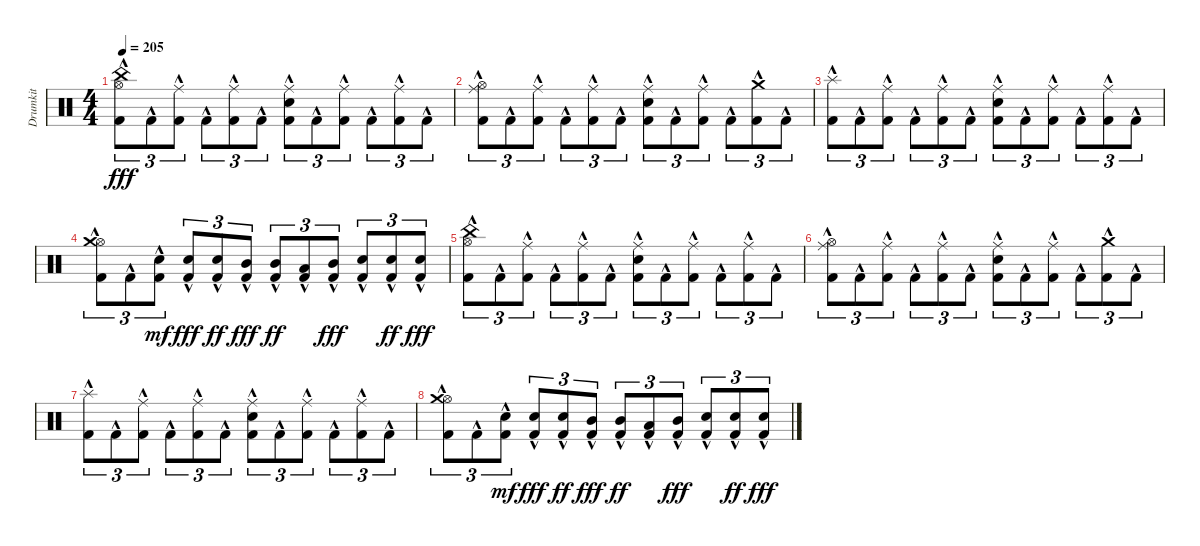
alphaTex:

\track ("Drumkit" "Drumkit") {instrument percussion}
\staff {score}
\articulation defaults
\ts (4 4)
\tempo 205
\clef neutral
\ks c
("Kick (hit) 2"{hac} "Hi-Hat (open)"{hac} "China (hit)"{hac}).8{tu (3 2) dy fff} "Kick (hit) 2"{hac}.8{tu (3 2)} ("Kick (hit) 2"{hac} "Ride (middle)"{hac}).8{tu (3 2)} "Kick (hit) 2"{hac}.8{tu (3 2)} ("Kick (hit) 2"{hac} "Ride (middle)"{hac}).8{tu (3 2)} "Kick (hit) 2"{hac}.8{tu (3 2)} ("Kick (hit) 2"{hac} "Snare (hit) 2"{hac} "Ride (middle)"{hac}).8{tu (3 2)} "Kick (hit) 2"{hac}.8{tu (3 2)} ("Kick (hit) 2"{hac} "Ride (middle)"{hac}).8{tu (3 2)} "Kick (hit) 2"{hac}.8{tu (3 2)} ("Kick (hit) 2"{hac} "Ride (middle)"{hac}).8{tu (3 2)} "Kick (hit) 2"{hac}.8{tu (3 2)} |
("Kick (hit) 2"{hac} "Hi-Hat (open)"{hac} "Ride (middle)"{hac}).8{tu (3 2)} "Kick (hit) 2"{hac}.8{tu (3 2)} ("Kick (hit) 2"{hac} "Ride (middle)"{hac}).8{tu (3 2)} "Kick (hit) 2"{hac}.8{tu (3 2)} ("Kick (hit) 2"{hac} "Ride (middle)"{hac}).8{tu (3 2)} "Kick (hit) 2"{hac}.8{tu (3 2)} ("Kick (hit) 2"{hac} "Snare (hit) 2"{hac} "Ride (middle)"{hac}).8{tu (3 2)} "Kick (hit) 2"{hac}.8{tu (3 2)} ("Kick (hit) 2"{hac} "Ride (middle)"{hac}).8{tu (3 2)} "Kick (hit) 2"{hac}.8{tu (3 2)} ("Kick (hit) 2"{hac} "Crash medium (hit)"{hac}).8{tu (3 2)} "Kick (hit) 2"{hac}.8{tu (3 2)} |
("Kick (hit) 2"{hac} "Splash (hit)"{hac}).8{tu (3 2)} "Kick (hit) 2"{hac}.8{tu (3 2)} ("Kick (hit) 2"{hac} "Ride (middle)"{hac}).8{tu (3 2)} "Kick (hit) 2"{hac}.8{tu (3 2)} ("Kick (hit) 2"{hac} "Ride (middle)"{hac}).8{tu (3 2)} "Kick (hit) 2"{hac}.8{tu (3 2)} ("Kick (hit) 2"{hac} "Snare (hit) 2"{hac} "Ride (middle)"{hac}).8{tu (3 2)} "Kick (hit) 2"{hac}.8{tu (3 2)} ("Kick (hit) 2"{hac} "Ride (middle)"{hac}).8{tu (3 2)} "Kick (hit) 2"{hac}.8{tu (3 2)} ("Kick (hit) 2"{hac} "Ride (middle)"{hac}).8{tu (3 2)} "Kick (hit) 2"{hac}.8{tu (3 2)} |
("Kick (hit) 2"{hac} "Hi-Hat (open)"{hac} "Crash medium (hit)"{hac}).8{tu (3 2)} "Kick (hit) 2"{hac}.8{tu (3 2)} ("Kick (hit) 2"{hac} "Snare (hit) 2"{hac}).8{tu (3 2) dy mf} ("Kick (hit) 2"{hac} "Snare (hit) 2"{hac}).8{tu (3 2) dy fff} ("Kick (hit) 2"{hac} "Snare (hit) 2"{hac}).8{tu (3 2) dy ff} ("Kick (hit) 2"{hac} "Mid Tom (hit)"{hac}).8{tu (3 2) dy fff} ("Kick (hit) 2"{hac} "Mid Tom (hit)"{hac}).8{tu (3 2) dy ff} ("Kick (hit) 2"{hac} "Low Tom (hit)"{hac}).8{tu (3 2)} ("Kick (hit) 2"{hac} "Mid Tom (hit)"{hac}).8{tu (3 2) dy fff} ("Kick (hit) 2"{hac} "Snare (hit) 2"{hac}).8{tu (3 2)} ("Kick (hit) 2"{hac} "Snare (hit) 2"{hac}).8{tu (3 2) dy ff} ("Kick (hit) 2"{hac} "Snare (hit) 2"{hac}).8{tu (3 2) dy fff} |
("Kick (hit) 2"{hac} "Hi-Hat (open)"{hac} "China (hit)"{hac}).8{tu (3 2)} "Kick (hit) 2"{hac}.8{tu (3 2)} ("Kick (hit) 2"{hac} "Ride (middle)"{hac}).8{tu (3 2)} "Kick (hit) 2"{hac}.8{tu (3 2)} ("Kick (hit) 2"{hac} "Ride (middle)"{hac}).8{tu (3 2)} "Kick (hit) 2"{hac}.8{tu (3 2)} ("Kick (hit) 2"{hac} "Snare (hit) 2"{hac} "Ride (middle)"{hac}).8{tu (3 2)} "Kick (hit) 2"{hac}.8{tu (3 2)} ("Kick (hit) 2"{hac} "Ride (middle)"{hac}).8{tu (3 2)} "Kick (hit) 2"{hac}.8{tu (3 2)} ("Kick (hit) 2"{hac} "Ride (middle)"{hac}).8{tu (3 2)} "Kick (hit) 2"{hac}.8{tu (3 2)} |
("Kick (hit) 2"{hac} "Hi-Hat (open)"{hac} "Ride (middle)"{hac}).8{tu (3 2)} "Kick (hit) 2"{hac}.8{tu (3 2)} ("Kick (hit) 2"{hac} "Ride (middle)"{hac}).8{tu (3 2)} "Kick (hit) 2"{hac}.8{tu (3 2)} ("Kick (hit) 2"{hac} "Ride (middle)"{hac}).8{tu (3 2)} "Kick (hit) 2"{hac}.8{tu (3 2)} ("Kick (hit) 2"{hac} "Snare (hit) 2"{hac} "Ride (middle)"{hac}).8{tu (3 2)} "Kick (hit) 2"{hac}.8{tu (3 2)} ("Kick (hit) 2"{hac} "Ride (middle)"{hac}).8{tu (3 2)} "Kick (hit) 2"{hac}.8{tu (3 2)} ("Kick (hit) 2"{hac} "Crash medium (hit)"{hac}).8{tu (3 2)} "Kick (hit) 2"{hac}.8{tu (3 2)} |
("Kick (hit) 2"{hac} "Splash (hit)"{hac}).8{tu (3 2)} "Kick (hit) 2"{hac}.8{tu (3 2)} ("Kick (hit) 2"{hac} "Ride (middle)"{hac}).8{tu (3 2)} "Kick (hit) 2"{hac}.8{tu (3 2)} ("Kick (hit) 2"{hac} "Ride (middle)"{hac}).8{tu (3 2)} "Kick (hit) 2"{hac}.8{tu (3 2)} ("Kick (hit) 2"{hac} "Snare (hit) 2"{hac} "Ride (middle)"{hac}).8{tu (3 2)} "Kick (hit) 2"{hac}.8{tu (3 2)} ("Kick (hit) 2"{hac} "Ride (middle)"{hac}).8{tu (3 2)} "Kick (hit) 2"{hac}.8{tu (3 2)} ("Kick (hit) 2"{hac} "Ride (middle)"{hac}).8{tu (3 2)} "Kick (hit) 2"{hac}.8{tu (3 2)} |
("Kick (hit) 2"{hac} "Hi-Hat (open)"{hac} "Crash medium (hit)"{hac}).8{tu (3 2)} "Kick (hit) 2"{hac}.8{tu (3 2)} ("Kick (hit) 2"{hac} "Snare (hit) 2"{hac}).8{tu (3 2) dy mf} ("Kick (hit) 2"{hac} "Snare (hit) 2"{hac}).8{tu (3 2) dy fff} ("Kick (hit) 2"{hac} "Snare (hit) 2"{hac}).8{tu (3 2) dy ff} ("Kick (hit) 2"{hac} "Mid Tom (hit)"{hac}).8{tu (3 2) dy fff} ("Kick (hit) 2"{hac} "Mid Tom (hit)"{hac}).8{tu (3 2) dy ff} ("Kick (hit) 2"{hac} "Low Tom (hit)"{hac}).8{tu (3 2)} ("Kick (hit) 2"{hac} "Mid Tom (hit)"{hac}).8{tu (3 2) dy fff} ("Kick (hit) 2"{hac} "Snare (hit) 2"{hac}).8{tu (3 2)} ("Kick (hit) 2"{hac} "Snare (hit) 2"{hac}).8{tu (3 2) dy ff} ("Kick (hit) 2"{hac} "Snare (hit) 2"{hac}).8{tu (3 2) dy fff}
